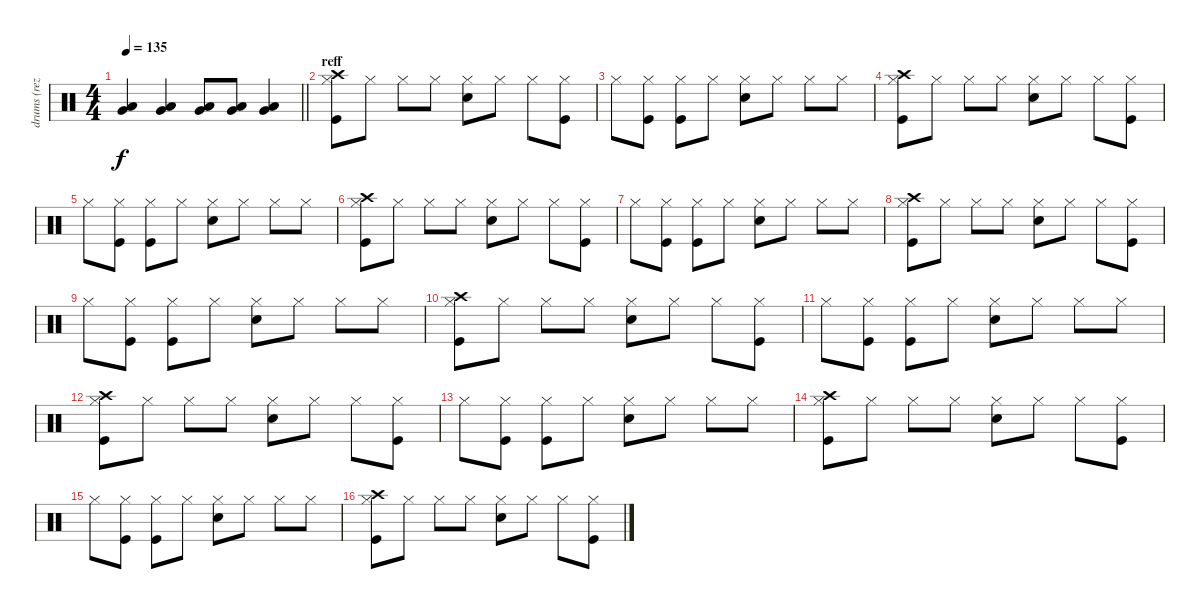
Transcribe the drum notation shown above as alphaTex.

\track ("drums (reza)" "drums (rez") {instrument percussion}
\staff {score}
\articulation defaults
\ts (4 4)
\tempo 135
\clef neutral
\barLineRight lightlight
\ks c
("Low Tom (hit)" "Very Low Tom (hit)").4{dy f} ("Low Tom (hit)" "Very Low Tom (hit)").4 ("Low Tom (hit)" "Very Low Tom (hit)").8 ("Low Tom (hit)" "Very Low Tom (hit)").8 ("Low Tom (hit)" "Very Low Tom (hit)").4 |
\section ("" "reff")
("Hi-Hat (closed)" "Kick (hit)" "Crash high (hit)").8 "Hi-Hat (closed)".8 "Hi-Hat (closed)".8 "Hi-Hat (closed)".8 ("Hi-Hat (closed)" "Snare (hit) 2").8 "Hi-Hat (closed)".8 "Hi-Hat (closed)".8 ("Hi-Hat (closed)" "Kick (hit)").8 |
"Hi-Hat (closed)".8 ("Hi-Hat (closed)" "Kick (hit)").8 ("Hi-Hat (closed)" "Kick (hit)").8 "Hi-Hat (closed)".8 ("Hi-Hat (closed)" "Snare (hit) 2").8 "Hi-Hat (closed)".8 "Hi-Hat (closed)".8 "Hi-Hat (closed)".8 |
("Hi-Hat (closed)" "Kick (hit)" "Crash high (hit)").8 "Hi-Hat (closed)".8 "Hi-Hat (closed)".8 "Hi-Hat (closed)".8 ("Hi-Hat (closed)" "Snare (hit) 2").8 "Hi-Hat (closed)".8 "Hi-Hat (closed)".8 ("Hi-Hat (closed)" "Kick (hit)").8 |
"Hi-Hat (closed)".8 ("Hi-Hat (closed)" "Kick (hit)").8 ("Hi-Hat (closed)" "Kick (hit)").8 "Hi-Hat (closed)".8 ("Hi-Hat (closed)" "Snare (hit) 2").8 "Hi-Hat (closed)".8 "Hi-Hat (closed)".8 "Hi-Hat (closed)".8 |
("Hi-Hat (closed)" "Kick (hit)" "Crash high (hit)").8 "Hi-Hat (closed)".8 "Hi-Hat (closed)".8 "Hi-Hat (closed)".8 ("Hi-Hat (closed)" "Snare (hit) 2").8 "Hi-Hat (closed)".8 "Hi-Hat (closed)".8 ("Hi-Hat (closed)" "Kick (hit)").8 |
"Hi-Hat (closed)".8 ("Hi-Hat (closed)" "Kick (hit)").8 ("Hi-Hat (closed)" "Kick (hit)").8 "Hi-Hat (closed)".8 ("Hi-Hat (closed)" "Snare (hit) 2").8 "Hi-Hat (closed)".8 "Hi-Hat (closed)".8 "Hi-Hat (closed)".8 |
("Hi-Hat (closed)" "Kick (hit)" "Crash high (hit)").8 "Hi-Hat (closed)".8 "Hi-Hat (closed)".8 "Hi-Hat (closed)".8 ("Hi-Hat (closed)" "Snare (hit) 2").8 "Hi-Hat (closed)".8 "Hi-Hat (closed)".8 ("Hi-Hat (closed)" "Kick (hit)").8 |
"Hi-Hat (closed)".8 ("Hi-Hat (closed)" "Kick (hit)").8 ("Hi-Hat (closed)" "Kick (hit)").8 "Hi-Hat (closed)".8 ("Hi-Hat (closed)" "Snare (hit) 2").8 "Hi-Hat (closed)".8 "Hi-Hat (closed)".8 "Hi-Hat (closed)".8 |
("Hi-Hat (closed)" "Kick (hit)" "Crash high (hit)").8 "Hi-Hat (closed)".8 "Hi-Hat (closed)".8 "Hi-Hat (closed)".8 ("Hi-Hat (closed)" "Snare (hit) 2").8 "Hi-Hat (closed)".8 "Hi-Hat (closed)".8 ("Hi-Hat (closed)" "Kick (hit)").8 |
"Hi-Hat (closed)".8 ("Hi-Hat (closed)" "Kick (hit)").8 ("Hi-Hat (closed)" "Kick (hit)").8 "Hi-Hat (closed)".8 ("Hi-Hat (closed)" "Snare (hit) 2").8 "Hi-Hat (closed)".8 "Hi-Hat (closed)".8 "Hi-Hat (closed)".8 |
("Hi-Hat (closed)" "Kick (hit)" "Crash high (hit)").8 "Hi-Hat (closed)".8 "Hi-Hat (closed)".8 "Hi-Hat (closed)".8 ("Hi-Hat (closed)" "Snare (hit) 2").8 "Hi-Hat (closed)".8 "Hi-Hat (closed)".8 ("Hi-Hat (closed)" "Kick (hit)").8 |
"Hi-Hat (closed)".8 ("Hi-Hat (closed)" "Kick (hit)").8 ("Hi-Hat (closed)" "Kick (hit)").8 "Hi-Hat (closed)".8 ("Hi-Hat (closed)" "Snare (hit) 2").8 "Hi-Hat (closed)".8 "Hi-Hat (closed)".8 "Hi-Hat (closed)".8 |
("Hi-Hat (closed)" "Kick (hit)" "Crash high (hit)").8 "Hi-Hat (closed)".8 "Hi-Hat (closed)".8 "Hi-Hat (closed)".8 ("Hi-Hat (closed)" "Snare (hit) 2").8 "Hi-Hat (closed)".8 "Hi-Hat (closed)".8 ("Hi-Hat (closed)" "Kick (hit)").8 |
"Hi-Hat (closed)".8 ("Hi-Hat (closed)" "Kick (hit)").8 ("Hi-Hat (closed)" "Kick (hit)").8 "Hi-Hat (closed)".8 ("Hi-Hat (closed)" "Snare (hit) 2").8 "Hi-Hat (closed)".8 "Hi-Hat (closed)".8 "Hi-Hat (closed)".8 |
("Hi-Hat (closed)" "Kick (hit)" "Crash high (hit)").8 "Hi-Hat (closed)".8 "Hi-Hat (closed)".8 "Hi-Hat (closed)".8 ("Hi-Hat (closed)" "Snare (hit) 2").8 "Hi-Hat (closed)".8 "Hi-Hat (closed)".8 ("Hi-Hat (closed)" "Kick (hit)").8
